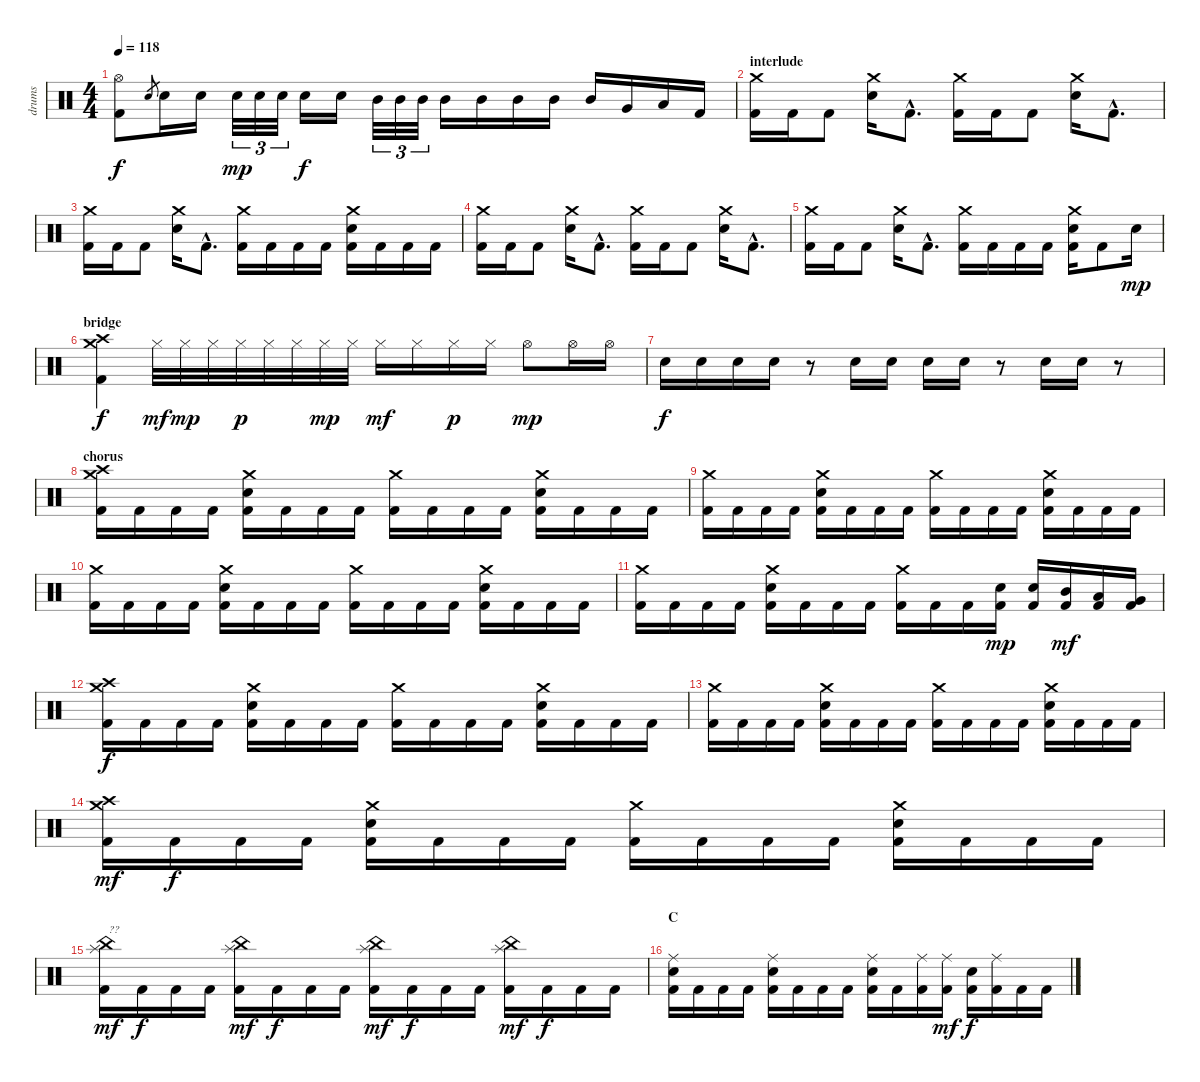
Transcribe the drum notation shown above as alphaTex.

\track ("drums" "drums") {instrument percussion}
\staff {score}
\articulation defaults
\ts (4 4)
\tempo 118
\clef neutral
\ks c
("Kick (hit) 2" "Hi-Hat (open)").8{dy f} "Snare (hit) 2".8{gr} "Snare (hit) 2".16 "Snare (hit) 2".16 "Snare (hit) 2".32{tu (3 2) dy mp} "Snare (hit) 2".32{tu (3 2)} "Snare (hit) 2".32{tu (3 2)} "Snare (hit) 2".16{dy f} "Snare (hit) 2".16 "Mid Tom (hit)".32{tu (3 2)} "Mid Tom (hit)".32{tu (3 2)} "Mid Tom (hit)".32{tu (3 2)} "Mid Tom (hit)".16 "Mid Tom (hit)".16 "Mid Tom (hit)".16 "Mid Tom (hit)".16 "Mid Tom (hit)".16 "Very Low Tom (hit)".16 "Low Floor Tom (hit)".16 "Kick (hit) 2".16 |
\section ("" "interlude")
("Kick (hit) 2" "Crash medium (hit)").16 "Kick (hit) 2".16 "Kick (hit) 2".8 ("Crash medium (hit)" "Snare (hit) 2").16 "Kick (hit) 2"{hac}.8{d} ("Kick (hit) 2" "Crash medium (hit)").16 "Kick (hit) 2".16 "Kick (hit) 2".8 ("Crash medium (hit)" "Snare (hit) 2").16 "Kick (hit) 2"{hac}.8{d} |
("Kick (hit) 2" "Crash medium (hit)").16 "Kick (hit) 2".16 "Kick (hit) 2".8 ("Crash medium (hit)" "Snare (hit) 2").16 "Kick (hit) 2"{hac}.8{d} ("Kick (hit) 2" "Crash medium (hit)").16 "Kick (hit) 2".16 "Kick (hit) 2".16 "Kick (hit) 2".16 ("Kick (hit) 2" "Crash medium (hit)" "Snare (hit) 2").16 "Kick (hit) 2".16 "Kick (hit) 2".16 "Kick (hit) 2".16 |
("Kick (hit) 2" "Crash medium (hit)").16 "Kick (hit) 2".16 "Kick (hit) 2".8 ("Crash medium (hit)" "Snare (hit) 2").16 "Kick (hit) 2"{hac}.8{d} ("Kick (hit) 2" "Crash medium (hit)").16 "Kick (hit) 2".16 "Kick (hit) 2".8 ("Crash medium (hit)" "Snare (hit) 2").16 "Kick (hit) 2"{hac}.8{d} |
("Kick (hit) 2" "Crash medium (hit)").16 "Kick (hit) 2".16 "Kick (hit) 2".8 ("Crash medium (hit)" "Snare (hit) 2").16 "Kick (hit) 2"{hac}.8{d} ("Kick (hit) 2" "Crash medium (hit)").16 "Kick (hit) 2".16 "Kick (hit) 2".16 "Kick (hit) 2".16 ("Kick (hit) 2" "Crash medium (hit)" "Snare (hit) 2").16 "Kick (hit) 2".8 "Snare (hit) 2".16{dy mp} |
\section ("" "bridge")
("Kick (hit) 2" "Crash high (hit)" "Crash medium (hit)").4{dy f} "Hi-Hat (closed)".32{dy mf} "Hi-Hat (closed)".32{dy mp} "Hi-Hat (closed)".32 "Hi-Hat (closed)".32{dy p} "Hi-Hat (closed)".32 "Hi-Hat (closed)".32 "Hi-Hat (closed)".32{dy mp} "Hi-Hat (closed)".32 "Hi-Hat (closed)".16{dy mf} "Hi-Hat (closed)".16 "Hi-Hat (closed)".16{dy p} "Hi-Hat (closed)".16 "Hi-Hat (open)".8{dy mp} "Hi-Hat (open)".16 "Hi-Hat (open)".16 |
"Snare (hit) 2".16{dy f} "Snare (hit) 2".16 "Snare (hit) 2".16 "Snare (hit) 2".16 r.8 "Snare (hit) 2".16 "Snare (hit) 2".16 "Snare (hit) 2".16 "Snare (hit) 2".16 r.8 "Snare (hit) 2".16 "Snare (hit) 2".16 r.8 |
\section ("" "chorus")
("Kick (hit) 2" "Crash high (hit)" "Crash medium (hit)").16 "Kick (hit) 2".16 "Kick (hit) 2".16 "Kick (hit) 2".16 ("Kick (hit) 2" "Crash medium (hit)" "Snare (hit) 2").16 "Kick (hit) 2".16 "Kick (hit) 2".16 "Kick (hit) 2".16 ("Kick (hit) 2" "Crash medium (hit)").16 "Kick (hit) 2".16 "Kick (hit) 2".16 "Kick (hit) 2".16 ("Kick (hit) 2" "Crash medium (hit)" "Snare (hit) 2").16 "Kick (hit) 2".16 "Kick (hit) 2".16 "Kick (hit) 2".16 |
("Kick (hit) 2" "Crash medium (hit)").16 "Kick (hit) 2".16 "Kick (hit) 2".16 "Kick (hit) 2".16 ("Kick (hit) 2" "Crash medium (hit)" "Snare (hit) 2").16 "Kick (hit) 2".16 "Kick (hit) 2".16 "Kick (hit) 2".16 ("Kick (hit) 2" "Crash medium (hit)").16 "Kick (hit) 2".16 "Kick (hit) 2".16 "Kick (hit) 2".16 ("Kick (hit) 2" "Crash medium (hit)" "Snare (hit) 2").16 "Kick (hit) 2".16 "Kick (hit) 2".16 "Kick (hit) 2".16 |
("Kick (hit) 2" "Crash medium (hit)").16 "Kick (hit) 2".16 "Kick (hit) 2".16 "Kick (hit) 2".16 ("Kick (hit) 2" "Crash medium (hit)" "Snare (hit) 2").16 "Kick (hit) 2".16 "Kick (hit) 2".16 "Kick (hit) 2".16 ("Kick (hit) 2" "Crash medium (hit)").16 "Kick (hit) 2".16 "Kick (hit) 2".16 "Kick (hit) 2".16 ("Kick (hit) 2" "Crash medium (hit)" "Snare (hit) 2").16 "Kick (hit) 2".16 "Kick (hit) 2".16 "Kick (hit) 2".16 |
("Kick (hit) 2" "Crash medium (hit)").16 "Kick (hit) 2".16 "Kick (hit) 2".16 "Kick (hit) 2".16 ("Kick (hit) 2" "Crash medium (hit)" "Snare (hit) 2").16 "Kick (hit) 2".16 "Kick (hit) 2".16 "Kick (hit) 2".16 ("Kick (hit) 2" "Crash medium (hit)").16 "Kick (hit) 2".16 "Kick (hit) 2".16 ("Kick (hit) 2" "Snare (hit) 2").16{dy mp} ("Kick (hit) 2" "Snare (hit) 2").16 ("Kick (hit) 2" "Mid Tom (hit)").16{dy mf} ("Kick (hit) 2" "Low Tom (hit)").16 ("Kick (hit) 2" "Very Low Tom (hit)").16 |
("Kick (hit) 2" "Crash medium (hit)" "Crash high (hit)").16{dy f} "Kick (hit) 2".16 "Kick (hit) 2".16 "Kick (hit) 2".16 ("Kick (hit) 2" "Crash medium (hit)" "Snare (hit) 2").16 "Kick (hit) 2".16 "Kick (hit) 2".16 "Kick (hit) 2".16 ("Kick (hit) 2" "Crash medium (hit)").16 "Kick (hit) 2".16 "Kick (hit) 2".16 "Kick (hit) 2".16 ("Kick (hit) 2" "Crash medium (hit)" "Snare (hit) 2").16 "Kick (hit) 2".16 "Kick (hit) 2".16 "Kick (hit) 2".16 |
("Kick (hit) 2" "Crash medium (hit)").16 "Kick (hit) 2".16 "Kick (hit) 2".16 "Kick (hit) 2".16 ("Kick (hit) 2" "Crash medium (hit)" "Snare (hit) 2").16 "Kick (hit) 2".16 "Kick (hit) 2".16 "Kick (hit) 2".16 ("Kick (hit) 2" "Crash medium (hit)").16 "Kick (hit) 2".16 "Kick (hit) 2".16 "Kick (hit) 2".16 ("Kick (hit) 2" "Crash medium (hit)" "Snare (hit) 2").16 "Kick (hit) 2".16 "Kick (hit) 2".16 "Kick (hit) 2".16 |
("Kick (hit) 2" "Crash medium (hit)" "Crash high (hit)").16{dy mf} "Kick (hit) 2".16{dy f} "Kick (hit) 2".16 "Kick (hit) 2".16 ("Kick (hit) 2" "Crash medium (hit)" "Snare (hit) 2").16 "Kick (hit) 2".16 "Kick (hit) 2".16 "Kick (hit) 2".16 ("Kick (hit) 2" "Crash medium (hit)").16 "Kick (hit) 2".16 "Kick (hit) 2".16 "Kick (hit) 2".16 ("Kick (hit) 2" "Crash medium (hit)" "Snare (hit) 2").16 "Kick (hit) 2".16 "Kick (hit) 2".16 "Kick (hit) 2".16 |
("Kick (hit) 2" "China (hit)" "Splash (hit)").16{txt "??" dy mf} "Kick (hit) 2".16{dy f} "Kick (hit) 2".16 "Kick (hit) 2".16 ("Kick (hit) 2" "China (hit)" "Splash (hit)").16{dy mf} "Kick (hit) 2".16{dy f} "Kick (hit) 2".16 "Kick (hit) 2".16 ("Kick (hit) 2" "China (hit)" "Splash (hit)").16{dy mf} "Kick (hit) 2".16{dy f} "Kick (hit) 2".16 "Kick (hit) 2".16 ("Kick (hit) 2" "China (hit)" "Splash (hit)").16{dy mf} "Kick (hit) 2".16{dy f} "Kick (hit) 2".16 "Kick (hit) 2".16 |
\section ("" "C")
("Kick (hit) 2" "Ride (middle)" "Snare (hit) 2").16 "Kick (hit) 2".16 "Kick (hit) 2".16 "Kick (hit) 2".16 ("Kick (hit) 2" "Ride (middle)" "Snare (hit) 2").16 "Kick (hit) 2".16 "Kick (hit) 2".16 "Kick (hit) 2".16 ("Kick (hit) 2" "Ride (middle)" "Snare (hit) 2").16 "Kick (hit) 2".16 ("Kick (hit) 2" "Ride (middle)").16 ("Kick (hit) 2" "Ride (middle)").16{dy mf} ("Kick (hit) 2" "Snare (hit) 2").16{dy f} ("Kick (hit) 2" "Ride (middle)").16 "Kick (hit) 2".16 "Kick (hit) 2".16
